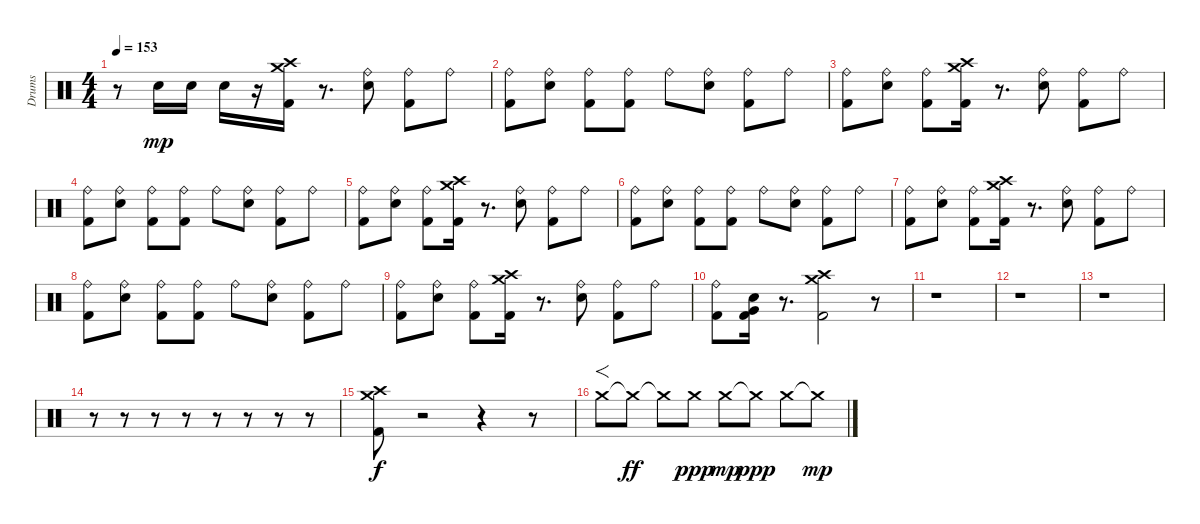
\track ("Drums" "Drums") {instrument percussion}
\staff {score}
\articulation defaults
\ts (4 4)
\tempo 153
\clef neutral
\ks c
r.8{dy mp} "Electric Snare (hit)".16 "Electric Snare (hit)".16 "Electric Snare (hit)".16 r.16 ("Crash medium (hit)" "Kick (hit) 2" "Crash high (hit)").16 r.8{d} ("Electric Snare (hit)" "Ride (bell)").8 ("Kick (hit) 2" "Ride (bell)").8 "Ride (bell)".8 |
("Kick (hit) 2" "Ride (bell)").8 ("Electric Snare (hit)" "Ride (bell)").8 ("Kick (hit) 2" "Ride (bell)").8 ("Kick (hit) 2" "Ride (bell)").8 "Ride (bell)".8 ("Electric Snare (hit)" "Ride (bell)").8 ("Kick (hit) 2" "Ride (bell)").8 "Ride (bell)".8 |
("Kick (hit) 2" "Ride (bell)").8 ("Electric Snare (hit)" "Ride (bell)").8 ("Kick (hit) 2" "Ride (bell)").8 ("Crash medium (hit)" "Crash high (hit)" "Kick (hit) 2").16 r.8{d} ("Electric Snare (hit)" "Ride (bell)").8 ("Kick (hit) 2" "Ride (bell)").8 "Ride (bell)".8 |
("Kick (hit) 2" "Ride (bell)").8 ("Electric Snare (hit)" "Ride (bell)").8 ("Kick (hit) 2" "Ride (bell)").8 ("Kick (hit) 2" "Ride (bell)").8 "Ride (bell)".8 ("Electric Snare (hit)" "Ride (bell)").8 ("Kick (hit) 2" "Ride (bell)").8 "Ride (bell)".8 |
("Kick (hit) 2" "Ride (bell)").8 ("Electric Snare (hit)" "Ride (bell)").8 ("Kick (hit) 2" "Ride (bell)").8 ("Crash medium (hit)" "Crash high (hit)" "Kick (hit) 2").16 r.8{d} ("Electric Snare (hit)" "Ride (bell)").8 ("Kick (hit) 2" "Ride (bell)").8 "Ride (bell)".8 |
("Kick (hit) 2" "Ride (bell)").8 ("Electric Snare (hit)" "Ride (bell)").8 ("Kick (hit) 2" "Ride (bell)").8 ("Kick (hit) 2" "Ride (bell)").8 "Ride (bell)".8 ("Electric Snare (hit)" "Ride (bell)").8 ("Kick (hit) 2" "Ride (bell)").8 "Ride (bell)".8 |
("Kick (hit) 2" "Ride (bell)").8 ("Electric Snare (hit)" "Ride (bell)").8 ("Kick (hit) 2" "Ride (bell)").8 ("Crash medium (hit)" "Crash high (hit)" "Kick (hit) 2").16 r.8{d} ("Electric Snare (hit)" "Ride (bell)").8 ("Kick (hit) 2" "Ride (bell)").8 "Ride (bell)".8 |
("Kick (hit) 2" "Ride (bell)").8 ("Electric Snare (hit)" "Ride (bell)").8 ("Kick (hit) 2" "Ride (bell)").8 ("Kick (hit) 2" "Ride (bell)").8 "Ride (bell)".8 ("Electric Snare (hit)" "Ride (bell)").8 ("Kick (hit) 2" "Ride (bell)").8 "Ride (bell)".8 |
("Kick (hit) 2" "Ride (bell)").8 ("Electric Snare (hit)" "Ride (bell)").8 ("Kick (hit) 2" "Ride (bell)").8 ("Kick (hit) 2" "Crash high (hit)" "Crash medium (hit)").16 r.8{d} ("Electric Snare (hit)" "Ride (bell)").8 ("Kick (hit) 2" "Ride (bell)").8 "Ride (bell)".8 |
("Kick (hit) 2" "Ride (bell)").8 ("Very Low Tom (hit)" "Electric Snare (hit)" "Kick (hit) 2").16 r.8{d} ("Crash high (hit)" "Kick (hit) 2" "Crash medium (hit)").2 r.8 |
r.1 |
r.1 |
r.1 |
r.8 r.8 r.8 r.8 r.8 r.8 r.8 r.8 |
("Kick (hit) 2" "Crash medium (hit)" "Crash high (hit)").8{dy f} r.2 r.4 r.8 |
"Crash medium (hit)".8{f} "Crash medium (hit)"{t}.8{dy ff} "Crash medium (hit)"{t}.8 "Crash medium (hit)".8{dy ppp} "Crash medium (hit)".8{dy mp} "Crash medium (hit)"{t}.8{dy ppp} "Crash medium (hit)".8 "Crash medium (hit)"{t}.8{dy mp}
